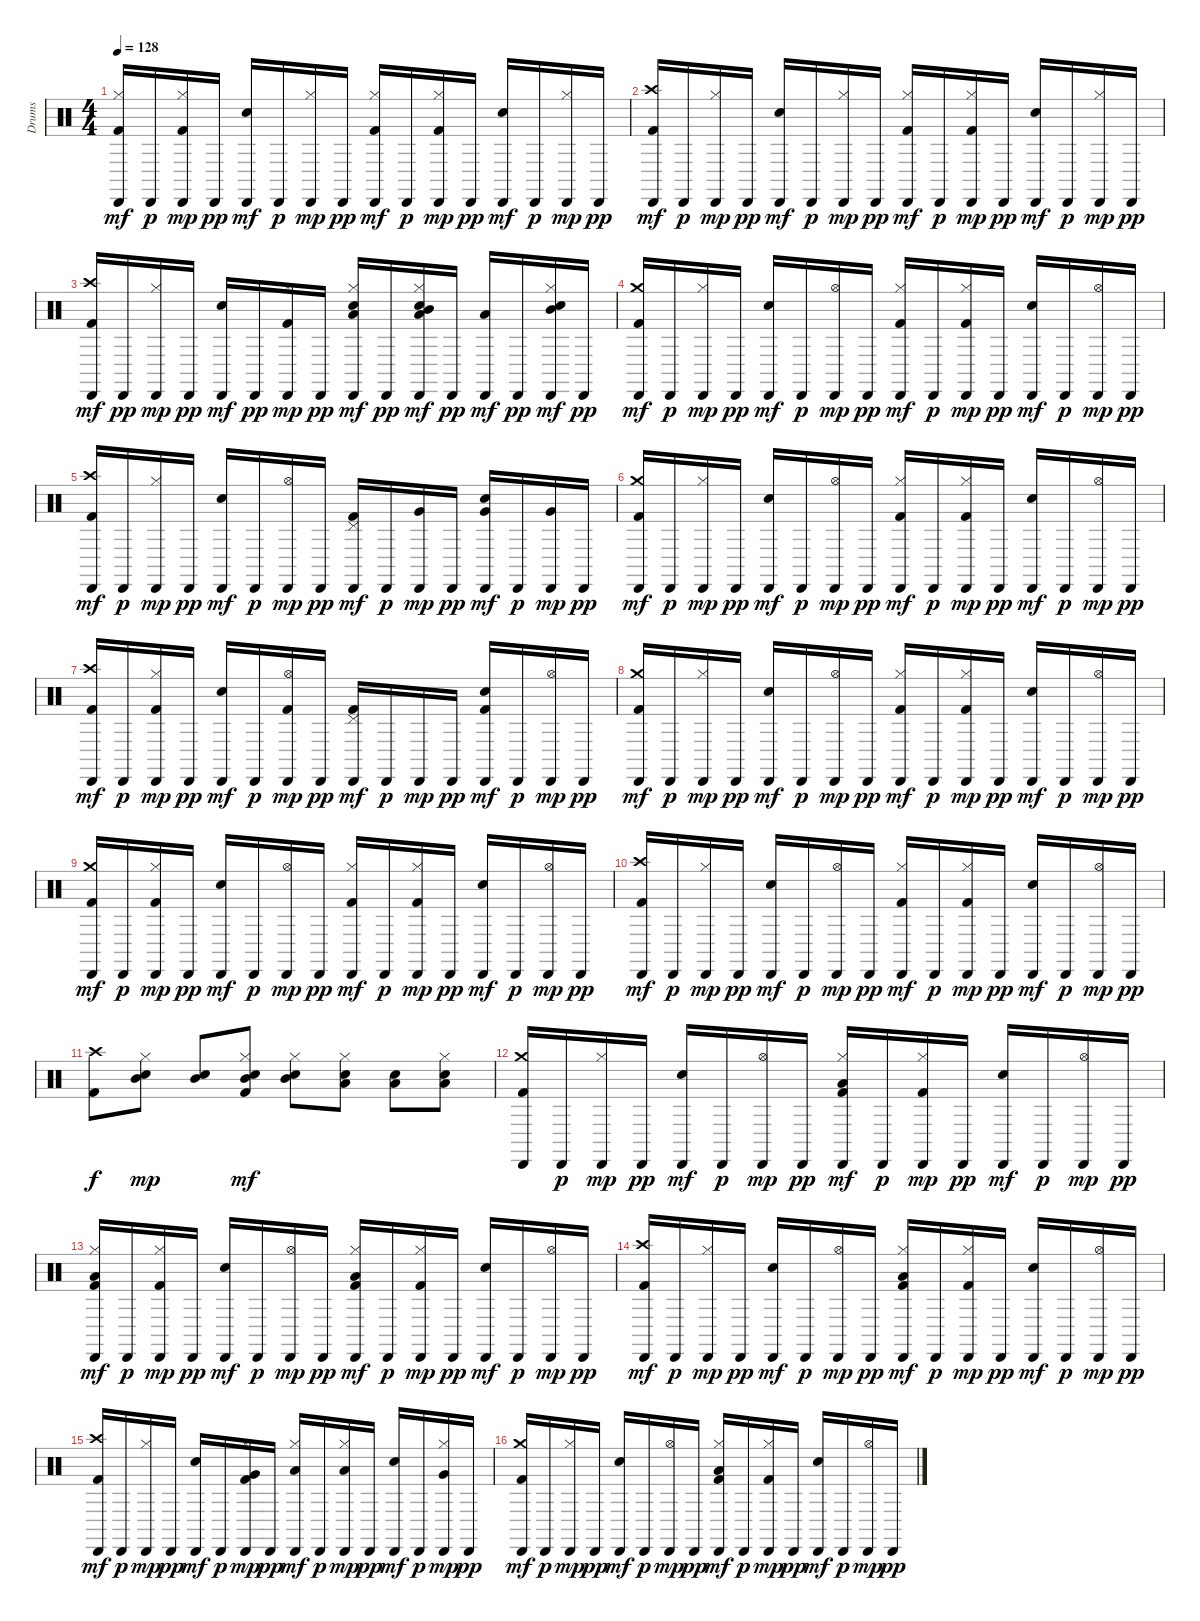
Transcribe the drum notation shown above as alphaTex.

\track ("Drums" "Drums") {instrument percussion}
\staff {score}
\articulation defaults
\ts (4 4)
\tempo 128
\clef neutral
\ks c
("Kick (hit) 2" "Hi-Hat (closed)" "Cabasa (hit)").16{dy mf} "Cabasa (hit)".16{dy p} ("Kick (hit) 2" "Hi-Hat (closed)" "Cabasa (hit)").16{dy mp} "Cabasa (hit)".16{dy pp} ("Electric Snare (hit)" "Cabasa (hit)").16{dy mf} "Cabasa (hit)".16{dy p} ("Hi-Hat (closed)" "Cabasa (hit)").16{dy mp} "Cabasa (hit)".16{dy pp} ("Kick (hit) 2" "Hi-Hat (closed)" "Cabasa (hit)").16{dy mf} "Cabasa (hit)".16{dy p} ("Kick (hit) 2" "Hi-Hat (closed)" "Cabasa (hit)").16{dy mp} "Cabasa (hit)".16{dy pp} ("Electric Snare (hit)" "Cabasa (hit)").16{dy mf} "Cabasa (hit)".16{dy p} ("Hi-Hat (closed)" "Cabasa (hit)").16{dy mp} "Cabasa (hit)".16{dy pp} |
("Kick (hit) 2" "Crash high (hit)" "Cabasa (hit)").16{dy mf} "Cabasa (hit)".16{dy p} ("Hi-Hat (closed)" "Cabasa (hit)").16{dy mp} "Cabasa (hit)".16{dy pp} ("Electric Snare (hit)" "Cabasa (hit)").16{dy mf} "Cabasa (hit)".16{dy p} ("Hi-Hat (closed)" "Cabasa (hit)").16{dy mp} "Cabasa (hit)".16{dy pp} ("Kick (hit) 2" "Hi-Hat (closed)" "Cabasa (hit)").16{dy mf} "Cabasa (hit)".16{dy p} ("Kick (hit) 2" "Hi-Hat (closed)" "Cabasa (hit)").16{dy mp} "Cabasa (hit)".16{dy pp} ("Electric Snare (hit)" "Cabasa (hit)").16{dy mf} "Cabasa (hit)".16{dy p} ("Hi-Hat (closed)" "Cabasa (hit)").16{dy mp} "Cabasa (hit)".16{dy pp} |
("Kick (hit) 2" "Crash high (hit)" "Cabasa (hit)").16{dy mf} "Cabasa (hit)".16{dy pp} ("Hi-Hat (closed)" "Cabasa (hit)").16{dy mp} "Cabasa (hit)".16{dy pp} ("Electric Snare (hit)" "Cabasa (hit)").16{dy mf} "Cabasa (hit)".16{dy pp} ("Kick (hit) 2" "Hi-Hat (closed)" "Cabasa (hit)").16{dy mp} "Cabasa (hit)".16{dy pp} ("Electric Snare (hit)" "Hi-Hat (closed)" "Cabasa (hit)" "Low Tom (hit)").16{dy mf} "Cabasa (hit)".16{dy pp} ("Electric Snare (hit)" "Hi-Hat (closed)" "Cabasa (hit)" "Low Tom (hit)" "Mid Tom (hit)").16{dy mf} "Cabasa (hit)".16{dy pp} ("Low Tom (hit)" "Cabasa (hit)").16{dy mf} "Cabasa (hit)".16{dy pp} ("Electric Snare (hit)" "Hi-Hat (closed)" "Cabasa (hit)" "Mid Tom (hit)").16{dy mf} "Cabasa (hit)".16{dy pp} |
("Kick (hit) 2" "Crash medium (hit)" "Cabasa (hit)").16{dy mf} "Cabasa (hit)".16{dy p} ("Hi-Hat (closed)" "Cabasa (hit)").16{dy mp} "Cabasa (hit)".16{dy pp} ("Electric Snare (hit)" "Cabasa (hit)").16{dy mf} "Cabasa (hit)".16{dy p} ("Hi-Hat (open)" "Cabasa (hit)").16{dy mp} "Cabasa (hit)".16{dy pp} ("Kick (hit) 2" "Hi-Hat (closed)" "Cabasa (hit)").16{dy mf} "Cabasa (hit)".16{dy p} ("Kick (hit) 2" "Hi-Hat (closed)" "Cabasa (hit)").16{dy mp} "Cabasa (hit)".16{dy pp} ("Electric Snare (hit)" "Cabasa (hit)").16{dy mf} "Cabasa (hit)".16{dy p} ("Hi-Hat (open)" "Cabasa (hit)").16{dy mp} "Cabasa (hit)".16{dy pp} |
("Kick (hit) 2" "Crash high (hit)" "Cabasa (hit)").16{dy mf} "Cabasa (hit)".16{dy p} ("Hi-Hat (closed)" "Cabasa (hit)").16{dy mp} "Cabasa (hit)".16{dy pp} ("Electric Snare (hit)" "Cabasa (hit)").16{dy mf} "Cabasa (hit)".16{dy p} ("Hi-Hat (open)" "Cabasa (hit)").16{dy mp} "Cabasa (hit)".16{dy pp} ("Kick (hit) 2" "Pedal Hi-Hat (hit)" "Cabasa (hit)").16{dy mf} "Cabasa (hit)".16{dy p} ("Very Low Tom (hit)" "Cabasa (hit)").16{dy mp} "Cabasa (hit)".16{dy pp} ("Electric Snare (hit)" "Very Low Tom (hit)" "Cabasa (hit)").16{dy mf} "Cabasa (hit)".16{dy p} ("Very Low Tom (hit)" "Cabasa (hit)").16{dy mp} "Cabasa (hit)".16{dy pp} |
("Kick (hit) 2" "Crash medium (hit)" "Cabasa (hit)").16{dy mf} "Cabasa (hit)".16{dy p} ("Hi-Hat (closed)" "Cabasa (hit)").16{dy mp} "Cabasa (hit)".16{dy pp} ("Electric Snare (hit)" "Cabasa (hit)").16{dy mf} "Cabasa (hit)".16{dy p} ("Hi-Hat (open)" "Cabasa (hit)").16{dy mp} "Cabasa (hit)".16{dy pp} ("Kick (hit) 2" "Hi-Hat (closed)" "Cabasa (hit)").16{dy mf} "Cabasa (hit)".16{dy p} ("Kick (hit) 2" "Hi-Hat (closed)" "Cabasa (hit)").16{dy mp} "Cabasa (hit)".16{dy pp} ("Electric Snare (hit)" "Cabasa (hit)").16{dy mf} "Cabasa (hit)".16{dy p} ("Hi-Hat (open)" "Cabasa (hit)").16{dy mp} "Cabasa (hit)".16{dy pp} |
("Kick (hit) 2" "Crash high (hit)" "Cabasa (hit)").16{dy mf} "Cabasa (hit)".16{dy p} ("Kick (hit) 2" "Hi-Hat (closed)" "Cabasa (hit)").16{dy mp} "Cabasa (hit)".16{dy pp} ("Electric Snare (hit)" "Cabasa (hit)").16{dy mf} "Cabasa (hit)".16{dy p} ("Kick (hit) 2" "Hi-Hat (open)" "Cabasa (hit)").16{dy mp} "Cabasa (hit)".16{dy pp} ("Kick (hit) 2" "Pedal Hi-Hat (hit)" "Cabasa (hit)").16{dy mf} "Cabasa (hit)".16{dy p} "Cabasa (hit)".16{dy mp} "Cabasa (hit)".16{dy pp} ("Kick (hit) 2" "Electric Snare (hit)" "Cabasa (hit)").16{dy mf} "Cabasa (hit)".16{dy p} ("Hi-Hat (open)" "Cabasa (hit)").16{dy mp} "Cabasa (hit)".16{dy pp} |
("Kick (hit) 2" "Crash medium (hit)" "Cabasa (hit)").16{dy mf} "Cabasa (hit)".16{dy p} ("Hi-Hat (closed)" "Cabasa (hit)").16{dy mp} "Cabasa (hit)".16{dy pp} ("Electric Snare (hit)" "Cabasa (hit)").16{dy mf} "Cabasa (hit)".16{dy p} ("Hi-Hat (open)" "Cabasa (hit)").16{dy mp} "Cabasa (hit)".16{dy pp} ("Kick (hit) 2" "Hi-Hat (closed)" "Cabasa (hit)").16{dy mf} "Cabasa (hit)".16{dy p} ("Kick (hit) 2" "Hi-Hat (closed)" "Cabasa (hit)").16{dy mp} "Cabasa (hit)".16{dy pp} ("Electric Snare (hit)" "Cabasa (hit)").16{dy mf} "Cabasa (hit)".16{dy p} ("Hi-Hat (open)" "Cabasa (hit)").16{dy mp} "Cabasa (hit)".16{dy pp} |
("Kick (hit) 2" "Crash medium (hit)" "Cabasa (hit)").16{dy mf} "Cabasa (hit)".16{dy p} ("Kick (hit) 2" "Hi-Hat (closed)" "Cabasa (hit)").16{dy mp} "Cabasa (hit)".16{dy pp} ("Electric Snare (hit)" "Cabasa (hit)").16{dy mf} "Cabasa (hit)".16{dy p} ("Hi-Hat (open)" "Cabasa (hit)").16{dy mp} "Cabasa (hit)".16{dy pp} ("Kick (hit) 2" "Hi-Hat (closed)" "Cabasa (hit)").16{dy mf} "Cabasa (hit)".16{dy p} ("Kick (hit) 2" "Hi-Hat (closed)" "Cabasa (hit)").16{dy mp} "Cabasa (hit)".16{dy pp} ("Electric Snare (hit)" "Cabasa (hit)").16{dy mf} "Cabasa (hit)".16{dy p} ("Hi-Hat (open)" "Cabasa (hit)").16{dy mp} "Cabasa (hit)".16{dy pp} |
("Kick (hit) 2" "Crash high (hit)" "Cabasa (hit)").16{dy mf} "Cabasa (hit)".16{dy p} ("Hi-Hat (closed)" "Cabasa (hit)").16{dy mp} "Cabasa (hit)".16{dy pp} ("Electric Snare (hit)" "Cabasa (hit)").16{dy mf} "Cabasa (hit)".16{dy p} ("Hi-Hat (open)" "Cabasa (hit)").16{dy mp} "Cabasa (hit)".16{dy pp} ("Kick (hit) 2" "Hi-Hat (closed)" "Cabasa (hit)").16{dy mf} "Cabasa (hit)".16{dy p} ("Kick (hit) 2" "Hi-Hat (closed)" "Cabasa (hit)").16{dy mp} "Cabasa (hit)".16{dy pp} ("Electric Snare (hit)" "Cabasa (hit)").16{dy mf} "Cabasa (hit)".16{dy p} ("Hi-Hat (open)" "Cabasa (hit)").16{dy mp} "Cabasa (hit)".16{dy pp} |
("Kick (hit) 2" "Crash high (hit)").8{dy f} ("Electric Snare (hit)" "Hi-Hat (closed)" "Mid Tom (hit)").8{dy mp} ("Electric Snare (hit)" "Mid Tom (hit)").8 ("Kick (hit) 2" "Electric Snare (hit)" "Hi-Hat (closed)" "Mid Tom (hit)").8{dy mf} ("Electric Snare (hit)" "Hi-Hat (closed)" "Mid Tom (hit)").8 ("Electric Snare (hit)" "Hi-Hat (closed)" "Low Tom (hit)").8 ("Electric Snare (hit)" "Low Tom (hit)").8 ("Electric Snare (hit)" "Hi-Hat (closed)" "Low Tom (hit)").8 |
("Kick (hit) 2" "Crash medium (hit)" "Cabasa (hit)").16 "Cabasa (hit)".16{dy p} ("Hi-Hat (closed)" "Cabasa (hit)").16{dy mp} "Cabasa (hit)".16{dy pp} ("Electric Snare (hit)" "Cabasa (hit)").16{dy mf} "Cabasa (hit)".16{dy p} ("Hi-Hat (open)" "Cabasa (hit)").16{dy mp} "Cabasa (hit)".16{dy pp} ("Kick (hit) 2" "Hi-Hat (closed)" "Low Tom (hit)" "Cabasa (hit)").16{dy mf} "Cabasa (hit)".16{dy p} ("Kick (hit) 2" "Hi-Hat (closed)" "Cabasa (hit)").16{dy mp} "Cabasa (hit)".16{dy pp} ("Electric Snare (hit)" "Cabasa (hit)").16{dy mf} "Cabasa (hit)".16{dy p} ("Hi-Hat (open)" "Cabasa (hit)").16{dy mp} "Cabasa (hit)".16{dy pp} |
("Kick (hit) 2" "Hi-Hat (closed)" "Low Tom (hit)" "Cabasa (hit)").16{dy mf} "Cabasa (hit)".16{dy p} ("Kick (hit) 2" "Hi-Hat (closed)" "Cabasa (hit)").16{dy mp} "Cabasa (hit)".16{dy pp} ("Electric Snare (hit)" "Cabasa (hit)").16{dy mf} "Cabasa (hit)".16{dy p} ("Hi-Hat (open)" "Cabasa (hit)").16{dy mp} "Cabasa (hit)".16{dy pp} ("Kick (hit) 2" "Hi-Hat (closed)" "Low Tom (hit)" "Cabasa (hit)").16{dy mf} "Cabasa (hit)".16{dy p} ("Kick (hit) 2" "Hi-Hat (closed)" "Cabasa (hit)").16{dy mp} "Cabasa (hit)".16{dy pp} ("Electric Snare (hit)" "Cabasa (hit)").16{dy mf} "Cabasa (hit)".16{dy p} ("Hi-Hat (open)" "Cabasa (hit)").16{dy mp} "Cabasa (hit)".16{dy pp} |
("Kick (hit) 2" "Crash high (hit)" "Cabasa (hit)").16{dy mf} "Cabasa (hit)".16{dy p} ("Hi-Hat (closed)" "Cabasa (hit)").16{dy mp} "Cabasa (hit)".16{dy pp} ("Electric Snare (hit)" "Cabasa (hit)").16{dy mf} "Cabasa (hit)".16{dy p} ("Hi-Hat (open)" "Cabasa (hit)").16{dy mp} "Cabasa (hit)".16{dy pp} ("Kick (hit) 2" "Hi-Hat (closed)" "Low Tom (hit)" "Cabasa (hit)").16{dy mf} "Cabasa (hit)".16{dy p} ("Kick (hit) 2" "Hi-Hat (closed)" "Cabasa (hit)").16{dy mp} "Cabasa (hit)".16{dy pp} ("Electric Snare (hit)" "Cabasa (hit)").16{dy mf} "Cabasa (hit)".16{dy p} ("Hi-Hat (open)" "Cabasa (hit)").16{dy mp} "Cabasa (hit)".16{dy pp} |
("Kick (hit) 2" "Crash high (hit)" "Cabasa (hit)").16{dy mf} "Cabasa (hit)".16{dy p} ("Hi-Hat (closed)" "Cabasa (hit)").16{dy mp} "Cabasa (hit)".16{dy pp} ("Electric Snare (hit)" "Cabasa (hit)").16{dy mf} "Cabasa (hit)".16{dy p} ("Kick (hit) 2" "Hi-Hat (closed)" "Very Low Tom (hit)" "Cabasa (hit)").16{dy mp} "Cabasa (hit)".16{dy pp} ("Hi-Hat (closed)" "Low Tom (hit)" "Cabasa (hit)").16{dy mf} "Cabasa (hit)".16{dy p} ("Hi-Hat (closed)" "Low Tom (hit)" "Cabasa (hit)").16{dy mp} "Cabasa (hit)".16{dy pp} ("Electric Snare (hit)" "Cabasa (hit)").16{dy mf} "Cabasa (hit)".16{dy p} ("Hi-Hat (closed)" "Very Low Tom (hit)" "Cabasa (hit)").16{dy mp} "Cabasa (hit)".16{dy pp} |
("Kick (hit) 2" "Crash medium (hit)" "Cabasa (hit)").16{dy mf} "Cabasa (hit)".16{dy p} ("Hi-Hat (closed)" "Cabasa (hit)").16{dy mp} "Cabasa (hit)".16{dy pp} ("Electric Snare (hit)" "Cabasa (hit)").16{dy mf} "Cabasa (hit)".16{dy p} ("Hi-Hat (open)" "Cabasa (hit)").16{dy mp} "Cabasa (hit)".16{dy pp} ("Kick (hit) 2" "Hi-Hat (closed)" "Low Tom (hit)" "Cabasa (hit)").16{dy mf} "Cabasa (hit)".16{dy p} ("Kick (hit) 2" "Hi-Hat (closed)" "Cabasa (hit)").16{dy mp} "Cabasa (hit)".16{dy pp} ("Electric Snare (hit)" "Cabasa (hit)").16{dy mf} "Cabasa (hit)".16{dy p} ("Hi-Hat (open)" "Cabasa (hit)").16{dy mp} "Cabasa (hit)".16{dy pp}
